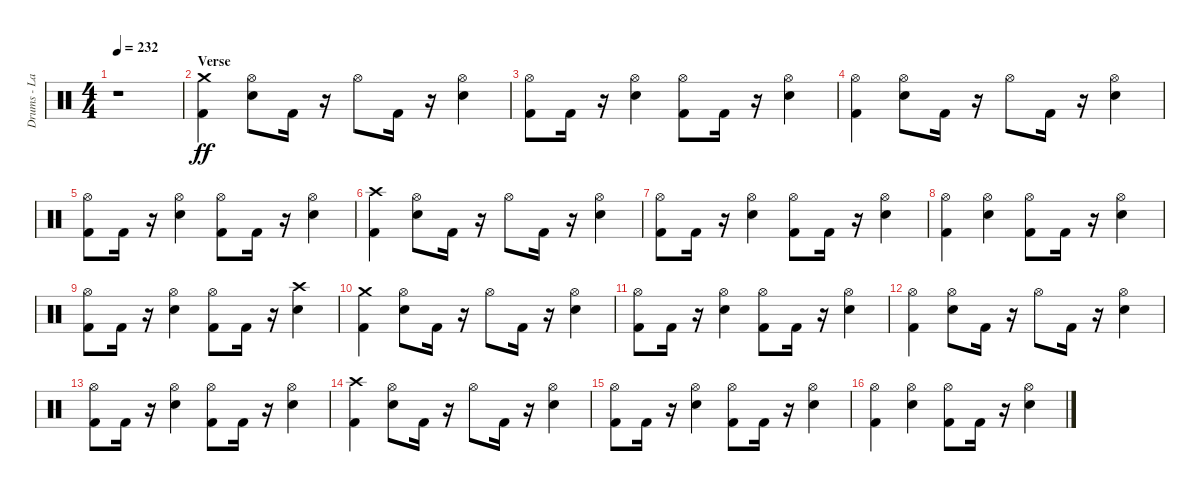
\track ("Drums - Larzon" "Drums - La") {instrument percussion}
\staff {score}
\articulation defaults
\ts (4 4)
\tempo 232
\clef neutral
\ks c
r.1{dy ff} |
\section ("" "Verse")
("Crash medium (hit)" "Kick (hit) 2").4 ("Hi-Hat (open)" "Electric Snare (hit)").8 "Kick (hit) 2".16 r.16 "Hi-Hat (open)".8 "Kick (hit) 2".16 r.16 ("Electric Snare (hit)" "Hi-Hat (open)").4 |
("Kick (hit) 2" "Hi-Hat (open)").8 "Kick (hit) 2".16 r.16 ("Electric Snare (hit)" "Hi-Hat (open)").4 ("Kick (hit) 2" "Hi-Hat (open)").8 "Kick (hit) 2".16 r.16 ("Electric Snare (hit)" "Hi-Hat (open)").4 |
("Kick (hit) 2" "Hi-Hat (open)").4 ("Hi-Hat (open)" "Electric Snare (hit)").8 "Kick (hit) 2".16 r.16 "Hi-Hat (open)".8 "Kick (hit) 2".16 r.16 ("Electric Snare (hit)" "Hi-Hat (open)").4 |
("Kick (hit) 2" "Hi-Hat (open)").8 "Kick (hit) 2".16 r.16 ("Electric Snare (hit)" "Hi-Hat (open)").4 ("Kick (hit) 2" "Hi-Hat (open)").8 "Kick (hit) 2".16 r.16 ("Electric Snare (hit)" "Hi-Hat (open)").4 |
("Kick (hit) 2" "Crash high (hit)").4 ("Hi-Hat (open)" "Electric Snare (hit)").8 "Kick (hit) 2".16 r.16 "Hi-Hat (open)".8 "Kick (hit) 2".16 r.16 ("Electric Snare (hit)" "Hi-Hat (open)").4 |
("Kick (hit) 2" "Hi-Hat (open)").8 "Kick (hit) 2".16 r.16 ("Electric Snare (hit)" "Hi-Hat (open)").4 ("Kick (hit) 2" "Hi-Hat (open)").8 "Kick (hit) 2".16 r.16 ("Electric Snare (hit)" "Hi-Hat (open)").4 |
("Kick (hit) 2" "Hi-Hat (open)").4 ("Hi-Hat (open)" "Electric Snare (hit)").4 ("Hi-Hat (open)" "Kick (hit) 2").8 "Kick (hit) 2".16 r.16 ("Electric Snare (hit)" "Hi-Hat (open)").4 |
("Kick (hit) 2" "Hi-Hat (open)").8 "Kick (hit) 2".16 r.16 ("Electric Snare (hit)" "Hi-Hat (open)").4 ("Kick (hit) 2" "Hi-Hat (open)").8 "Kick (hit) 2".16 r.16 ("Crash high (hit)" "Electric Snare (hit)").4 |
("Crash medium (hit)" "Kick (hit) 2").4 ("Hi-Hat (open)" "Electric Snare (hit)").8 "Kick (hit) 2".16 r.16 "Hi-Hat (open)".8 "Kick (hit) 2".16 r.16 ("Electric Snare (hit)" "Hi-Hat (open)").4 |
("Kick (hit) 2" "Hi-Hat (open)").8 "Kick (hit) 2".16 r.16 ("Electric Snare (hit)" "Hi-Hat (open)").4 ("Kick (hit) 2" "Hi-Hat (open)").8 "Kick (hit) 2".16 r.16 ("Electric Snare (hit)" "Hi-Hat (open)").4 |
("Kick (hit) 2" "Hi-Hat (open)").4 ("Hi-Hat (open)" "Electric Snare (hit)").8 "Kick (hit) 2".16 r.16 "Hi-Hat (open)".8 "Kick (hit) 2".16 r.16 ("Electric Snare (hit)" "Hi-Hat (open)").4 |
("Kick (hit) 2" "Hi-Hat (open)").8 "Kick (hit) 2".16 r.16 ("Electric Snare (hit)" "Hi-Hat (open)").4 ("Kick (hit) 2" "Hi-Hat (open)").8 "Kick (hit) 2".16 r.16 ("Electric Snare (hit)" "Hi-Hat (open)").4 |
("Kick (hit) 2" "Crash high (hit)").4 ("Hi-Hat (open)" "Electric Snare (hit)").8 "Kick (hit) 2".16 r.16 "Hi-Hat (open)".8 "Kick (hit) 2".16 r.16 ("Electric Snare (hit)" "Hi-Hat (open)").4 |
("Kick (hit) 2" "Hi-Hat (open)").8 "Kick (hit) 2".16 r.16 ("Electric Snare (hit)" "Hi-Hat (open)").4 ("Kick (hit) 2" "Hi-Hat (open)").8 "Kick (hit) 2".16 r.16 ("Electric Snare (hit)" "Hi-Hat (open)").4 |
("Kick (hit) 2" "Hi-Hat (open)").4 ("Hi-Hat (open)" "Electric Snare (hit)").4 ("Hi-Hat (open)" "Kick (hit) 2").8 "Kick (hit) 2".16 r.16 ("Electric Snare (hit)" "Hi-Hat (open)").4
